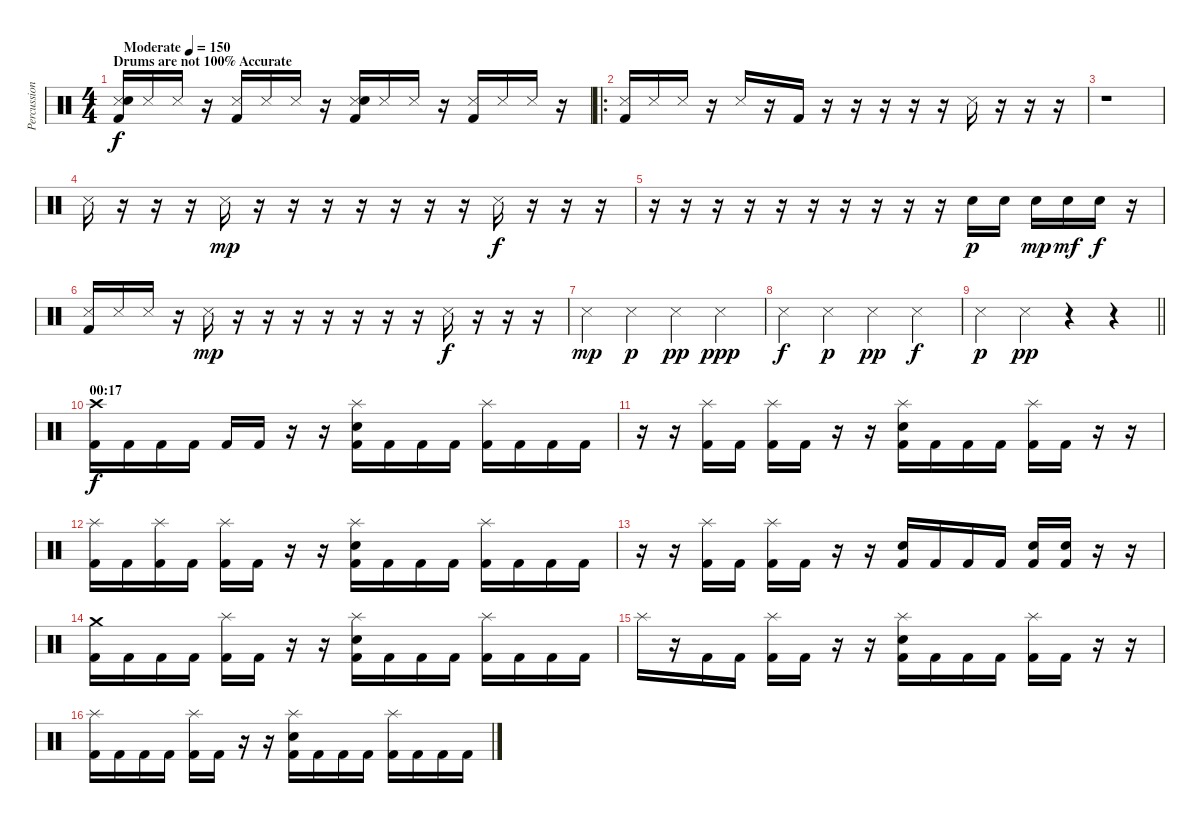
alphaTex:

\track ("Percussion" "Percussion") {instrument percussion}
\staff {score}
\articulation defaults
\ts (4 4)
\section ("" "Drums are not 100% Accurate")
\tempo (150 "Moderate")
\clef neutral
\ks c
("Snare (side stick) 3" "Electric Snare (hit)" "Kick (hit) 2").16{dy f volume 2} "Snare (side stick) 3".16{volume 16} "Snare (side stick) 3".16 r.16 ("Snare (side stick) 3" "Kick (hit) 2").16 "Snare (side stick) 3".16 "Snare (side stick) 3".16 r.16 ("Snare (side stick) 3" "Electric Snare (hit)" "Kick (hit) 2").16 "Snare (side stick) 3".16 "Snare (side stick) 3".16 r.16 ("Snare (side stick) 3" "Kick (hit) 2").16 "Snare (side stick) 3".16 "Snare (side stick) 3".16 r.16 |
\ro
("Snare (side stick) 3" "Kick (hit) 2").16{volume 16} "Snare (side stick) 3".16 "Snare (side stick) 3".16 r.16 "Snare (side stick) 3".16 r.16 "Kick (hit) 2".16 r.16 r.16 r.16 r.16 r.16 "Snare (side stick) 3".16 r.16 r.16 r.16 |
r.1 |
"Snare (side stick) 3".16 r.16 r.16 r.16 "Snare (side stick) 3".16{dy mp} r.16 r.16 r.16 r.16 r.16 r.16 r.16 "Snare (side stick) 3".16{dy f} r.16 r.16 r.16 |
r.16 r.16 r.16 r.16 r.16 r.16 r.16 r.16 r.16 r.16 "Electric Snare (hit)".16{dy p} "Electric Snare (hit)".16 "Electric Snare (hit)".16{dy mp} "Electric Snare (hit)".16{dy mf} "Electric Snare (hit)".16{dy f} r.16 |
("Snare (side stick) 3" "Kick (hit) 2").16 "Snare (side stick) 3".16 "Snare (side stick) 3".16 r.16 "Snare (side stick) 3".16{dy mp} r.16 r.16 r.16 r.16 r.16 r.16 r.16 "Snare (side stick) 3".16{dy f} r.16 r.16 r.16 |
"Snare (side stick) 3".4{dy mp} "Snare (side stick) 3".4{dy p} "Snare (side stick) 3".4{dy pp} "Snare (side stick) 3".4{dy ppp} |
"Snare (side stick) 3".4{dy f} "Snare (side stick) 3".4{dy p} "Snare (side stick) 3".4{dy pp} "Snare (side stick) 3".4{dy f} |
\barLineRight lightlight "Snare (side stick) 3".4{dy p} "Snare (side stick) 3".4{dy pp}
r.4 r.4 |
\section ("" "00:17")
("Crash high (hit)" "Kick (hit) 2").16{dy f} "Kick (hit) 2".16 "Kick (hit) 2".16 "Kick (hit) 2".16 "Kick (hit) 2".16 "Kick (hit) 2".16 r.16 r.16 ("Splash (hit)" "Electric Snare (hit)" "Kick (hit) 2").16 "Kick (hit) 2".16 "Kick (hit) 2".16 "Kick (hit) 2".16 ("Splash (hit)" "Kick (hit) 2").16 "Kick (hit) 2".16 "Kick (hit) 2".16 "Kick (hit) 2".16 |
r.16 r.16 ("Splash (hit)" "Kick (hit) 2").16 "Kick (hit) 2".16 ("Splash (hit)" "Kick (hit) 2").16 "Kick (hit) 2".16 r.16 r.16 ("Splash (hit)" "Electric Snare (hit)" "Kick (hit) 2").16 "Kick (hit) 2".16 "Kick (hit) 2".16 "Kick (hit) 2".16 ("Splash (hit)" "Kick (hit) 2").16 "Kick (hit) 2".16 r.16 r.16 |
("Splash (hit)" "Kick (hit) 2").16 "Kick (hit) 2".16 ("Splash (hit)" "Kick (hit) 2").16 "Kick (hit) 2".16 ("Splash (hit)" "Kick (hit) 2").16 "Kick (hit) 2".16 r.16 r.16 ("Splash (hit)" "Electric Snare (hit)" "Kick (hit) 2").16 "Kick (hit) 2".16 "Kick (hit) 2".16 "Kick (hit) 2".16 ("Splash (hit)" "Kick (hit) 2").16 "Kick (hit) 2".16 "Kick (hit) 2".16 "Kick (hit) 2".16 |
r.16 r.16 ("Splash (hit)" "Kick (hit) 2").16 "Kick (hit) 2".16 ("Splash (hit)" "Kick (hit) 2").16 "Kick (hit) 2".16 r.16 r.16 ("Electric Snare (hit)" "Kick (hit) 2").16 "Kick (hit) 2".16 "Kick (hit) 2".16 "Kick (hit) 2".16 ("Electric Snare (hit)" "Kick (hit) 2").16 ("Electric Snare (hit)" "Kick (hit) 2").16 r.16 r.16 |
("Crash medium (hit)" "Kick (hit) 2").16 "Kick (hit) 2".16 "Kick (hit) 2".16 "Kick (hit) 2".16 ("Splash (hit)" "Kick (hit) 2").16 "Kick (hit) 2".16 r.16 r.16 ("Splash (hit)" "Electric Snare (hit)" "Kick (hit) 2").16 "Kick (hit) 2".16 "Kick (hit) 2".16 "Kick (hit) 2".16 ("Splash (hit)" "Kick (hit) 2").16 "Kick (hit) 2".16 "Kick (hit) 2".16 "Kick (hit) 2".16 |
"Splash (hit)".16 r.16 "Kick (hit) 2".16 "Kick (hit) 2".16 ("Splash (hit)" "Kick (hit) 2").16 "Kick (hit) 2".16 r.16 r.16 ("Splash (hit)" "Electric Snare (hit)" "Kick (hit) 2").16 "Kick (hit) 2".16 "Kick (hit) 2".16 "Kick (hit) 2".16 ("Splash (hit)" "Kick (hit) 2").16 "Kick (hit) 2".16 r.16 r.16 |
("Splash (hit)" "Kick (hit) 2").16 "Kick (hit) 2".16 "Kick (hit) 2".16 "Kick (hit) 2".16 ("Splash (hit)" "Kick (hit) 2").16 "Kick (hit) 2".16 r.16 r.16 ("Splash (hit)" "Electric Snare (hit)" "Kick (hit) 2").16 "Kick (hit) 2".16 "Kick (hit) 2".16 "Kick (hit) 2".16 ("Splash (hit)" "Kick (hit) 2").16 "Kick (hit) 2".16 "Kick (hit) 2".16 "Kick (hit) 2".16
